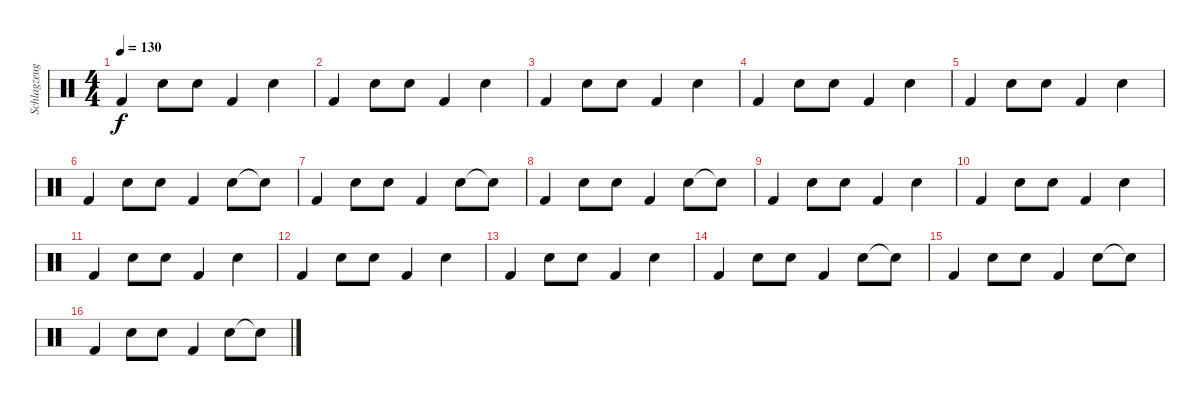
\track ("Schlagzeug" "Schlagzeug") {instrument percussion}
\staff {score}
\articulation defaults
\ts (4 4)
\tempo 130
\clef neutral
\ks c "Kick (hit) 2".4{dy f} "Snare (hit) 2".8 "Snare (hit) 2".8 "Kick (hit) 2".4 "Snare (hit) 2".4
|
"Kick (hit) 2".4 "Snare (hit) 2".8 "Snare (hit) 2".8 "Kick (hit) 2".4 "Snare (hit) 2".4 |
"Kick (hit) 2".4 "Snare (hit) 2".8 "Snare (hit) 2".8 "Kick (hit) 2".4 "Snare (hit) 2".4 |
"Kick (hit) 2".4 "Snare (hit) 2".8 "Snare (hit) 2".8 "Kick (hit) 2".4 "Snare (hit) 2".4 |
"Kick (hit) 2".4 "Snare (hit) 2".8 "Snare (hit) 2".8 "Kick (hit) 2".4 "Snare (hit) 2".4 |
"Kick (hit) 2".4 "Snare (hit) 2".8 "Snare (hit) 2".8 "Kick (hit) 2".4 "Snare (hit) 2".8 "Snare (hit)"{t}.8 |
"Kick (hit) 2".4 "Snare (hit) 2".8 "Snare (hit) 2".8 "Kick (hit) 2".4 "Snare (hit) 2".8 "Snare (hit)"{t}.8 |
"Kick (hit) 2".4 "Snare (hit) 2".8 "Snare (hit) 2".8 "Kick (hit) 2".4 "Snare (hit) 2".8 "Snare (hit)"{t}.8 |
"Kick (hit) 2".4 "Snare (hit) 2".8 "Snare (hit) 2".8 "Kick (hit) 2".4 "Snare (hit) 2".4 |
"Kick (hit) 2".4 "Snare (hit) 2".8 "Snare (hit) 2".8 "Kick (hit) 2".4 "Snare (hit) 2".4 |
"Kick (hit) 2".4 "Snare (hit) 2".8 "Snare (hit) 2".8 "Kick (hit) 2".4 "Snare (hit) 2".4 |
"Kick (hit) 2".4 "Snare (hit) 2".8 "Snare (hit) 2".8 "Kick (hit) 2".4 "Snare (hit) 2".4 |
"Kick (hit) 2".4 "Snare (hit) 2".8 "Snare (hit) 2".8 "Kick (hit) 2".4 "Snare (hit) 2".4 |
"Kick (hit) 2".4 "Snare (hit) 2".8 "Snare (hit) 2".8 "Kick (hit) 2".4 "Snare (hit) 2".8 "Snare (hit)"{t}.8 |
"Kick (hit) 2".4 "Snare (hit) 2".8 "Snare (hit) 2".8 "Kick (hit) 2".4 "Snare (hit) 2".8 "Snare (hit)"{t}.8 |
"Kick (hit) 2".4 "Snare (hit) 2".8 "Snare (hit) 2".8 "Kick (hit) 2".4 "Snare (hit) 2".8 "Snare (hit)"{t}.8
